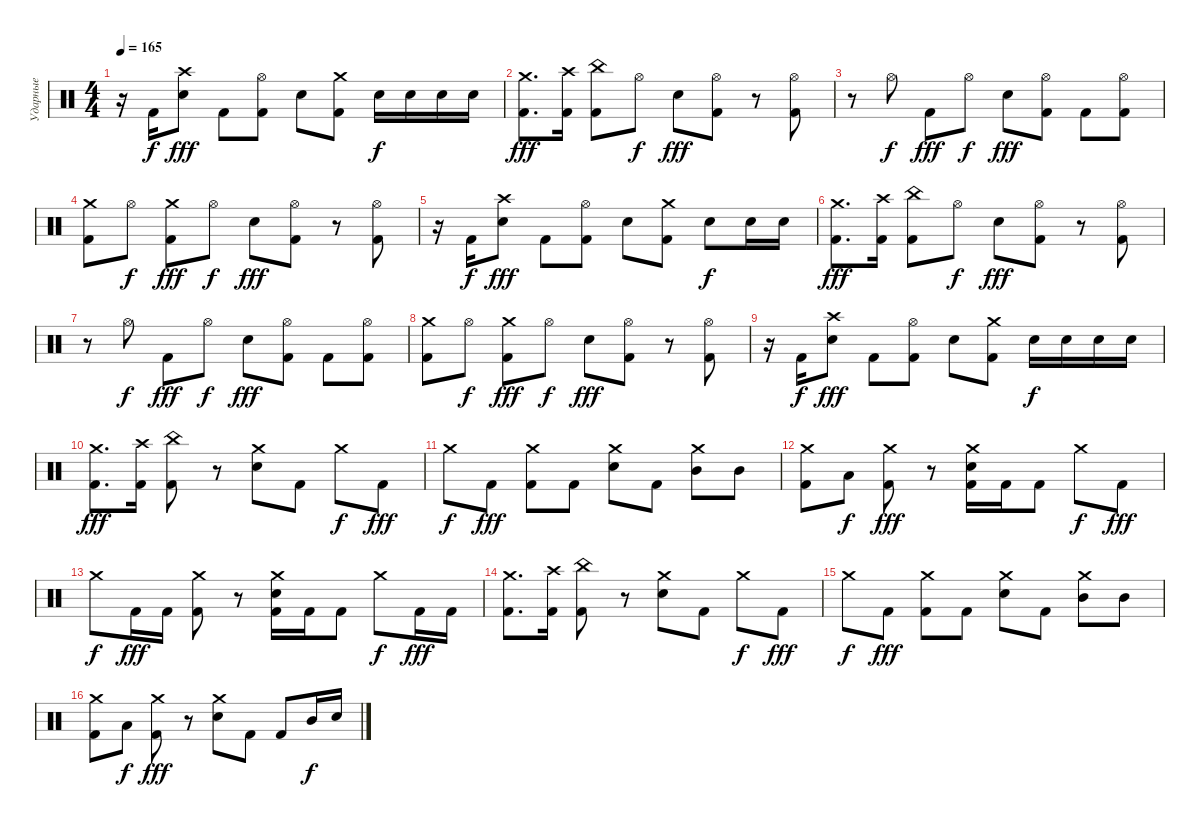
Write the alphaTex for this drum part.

\track ("Ударные" "Ударные") {instrument percussion}
\staff {score}
\articulation defaults
\ts (4 4)
\tempo 165
\clef neutral
\ks c
r.16{dy fff} "Kick (hit) 2".16{dy f} ("Crash high (hit)" "Electric Snare (hit)").8{dy fff} "Kick (hit) 2".8 ("Hi-Hat (open)" "Kick (hit) 2").8 "Electric Snare (hit)".8 ("Crash medium (hit)" "Kick (hit) 2").8 "Electric Snare (hit)".16{dy f} "Electric Snare (hit)".16 "Electric Snare (hit)".16 "Electric Snare (hit)".16 |
("Crash medium (hit)" "Kick (hit) 2").8{d dy fff} ("Crash high (hit)" "Kick (hit) 2").16 ("China (hit)" "Kick (hit) 2").8 "Hi-Hat (open)".8{dy f} "Electric Snare (hit)".8{dy fff} ("Hi-Hat (open)" "Kick (hit) 2").8 r.8 ("Hi-Hat (open)" "Kick (hit) 2").8 |
r.8 "Hi-Hat (open)".8{dy f} "Kick (hit) 2".8{dy fff} "Hi-Hat (open)".8{dy f} "Electric Snare (hit)".8{dy fff} ("Hi-Hat (open)" "Kick (hit) 2").8 "Kick (hit) 2".8 ("Hi-Hat (open)" "Kick (hit) 2").8 |
("Crash medium (hit)" "Kick (hit) 2").8 "Hi-Hat (open)".8{dy f} ("Crash medium (hit)" "Kick (hit) 2").8{dy fff} "Hi-Hat (open)".8{dy f} "Electric Snare (hit)".8{dy fff} ("Hi-Hat (open)" "Kick (hit) 2").8 r.8 ("Hi-Hat (open)" "Kick (hit) 2").8 |
r.16 "Kick (hit) 2".16{dy f} ("Crash high (hit)" "Electric Snare (hit)").8{dy fff} "Kick (hit) 2".8 ("Hi-Hat (open)" "Kick (hit) 2").8 "Electric Snare (hit)".8 ("Crash medium (hit)" "Kick (hit) 2").8 "Electric Snare (hit)".8{dy f} "Electric Snare (hit)".16 "Electric Snare (hit)".16 |
("Crash medium (hit)" "Kick (hit) 2").8{d dy fff} ("Crash high (hit)" "Kick (hit) 2").16 ("China (hit)" "Kick (hit) 2").8 "Hi-Hat (open)".8{dy f} "Electric Snare (hit)".8{dy fff} ("Hi-Hat (open)" "Kick (hit) 2").8 r.8 ("Hi-Hat (open)" "Kick (hit) 2").8 |
r.8 "Hi-Hat (open)".8{dy f} "Kick (hit) 2".8{dy fff} "Hi-Hat (open)".8{dy f} "Electric Snare (hit)".8{dy fff} ("Hi-Hat (open)" "Kick (hit) 2").8 "Kick (hit) 2".8 ("Hi-Hat (open)" "Kick (hit) 2").8 |
("Crash medium (hit)" "Kick (hit) 2").8 "Hi-Hat (open)".8{dy f} ("Crash medium (hit)" "Kick (hit) 2").8{dy fff} "Hi-Hat (open)".8{dy f} "Electric Snare (hit)".8{dy fff} ("Hi-Hat (open)" "Kick (hit) 2").8 r.8 ("Hi-Hat (open)" "Kick (hit) 2").8 |
r.16 "Kick (hit) 2".16{dy f} ("Crash high (hit)" "Electric Snare (hit)").8{dy fff} "Kick (hit) 2".8 ("Hi-Hat (open)" "Kick (hit) 2").8 "Electric Snare (hit)".8 ("Crash medium (hit)" "Kick (hit) 2").8 "Electric Snare (hit)".16{dy f} "Electric Snare (hit)".16 "Electric Snare (hit)".16 "Electric Snare (hit)".16 |
("Crash medium (hit)" "Kick (hit) 2").8{d dy fff} ("Crash high (hit)" "Kick (hit) 2").16 ("China (hit)" "Kick (hit) 2").8 r.8 ("Crash medium (hit)" "Electric Snare (hit)").8 "Kick (hit) 2".8 "Crash medium (hit)".8{dy f} "Kick (hit) 2".8{dy fff} |
"Crash medium (hit)".8{dy f} "Kick (hit) 2".8{dy fff} ("Crash medium (hit)" "Kick (hit) 2").8 "Kick (hit) 2".8 ("Crash medium (hit)" "Electric Snare (hit)").8 "Kick (hit) 2".8 ("Crash medium (hit)" "Mid Tom (hit)").8 "Mid Tom (hit)".8 |
("Crash medium (hit)" "Kick (hit) 2").8 "Low Tom (hit)".8{dy f} ("Crash medium (hit)" "Kick (hit) 2").8{dy fff} r.8 ("Crash medium (hit)" "Electric Snare (hit)" "Kick (hit) 2").16 "Kick (hit) 2".16 "Kick (hit) 2".8 "Crash medium (hit)".8{dy f} "Kick (hit) 2".8{dy fff} |
"Crash medium (hit)".8{dy f} "Kick (hit) 2".16{dy fff} "Kick (hit) 2".16 ("Crash medium (hit)" "Kick (hit) 2").8 r.8 ("Crash medium (hit)" "Electric Snare (hit)" "Kick (hit) 2").16 "Kick (hit) 2".16 "Kick (hit) 2".8 "Crash medium (hit)".8{dy f} "Kick (hit) 2".16{dy fff} "Kick (hit) 2".16 |
("Crash medium (hit)" "Kick (hit) 2").8{d} ("Crash high (hit)" "Kick (hit) 2").16 ("China (hit)" "Kick (hit) 2").8 r.8 ("Crash medium (hit)" "Electric Snare (hit)").8 "Kick (hit) 2".8 "Crash medium (hit)".8{dy f} "Kick (hit) 2".8{dy fff} |
"Crash medium (hit)".8{dy f} "Kick (hit) 2".8{dy fff} ("Crash medium (hit)" "Kick (hit) 2").8 "Kick (hit) 2".8 ("Crash medium (hit)" "Electric Snare (hit)").8 "Kick (hit) 2".8 ("Crash medium (hit)" "Mid Tom (hit)").8 "Mid Tom (hit)".8 |
("Crash medium (hit)" "Kick (hit) 2").8 "Low Tom (hit)".8{dy f} ("Crash medium (hit)" "Kick (hit) 2").8{dy fff} r.8 ("Crash medium (hit)" "Electric Snare (hit)").8 "Kick (hit) 2".8 "Kick (hit) 2".8 "Mid Tom (hit)".16{dy f} "Electric Snare (hit)".16
